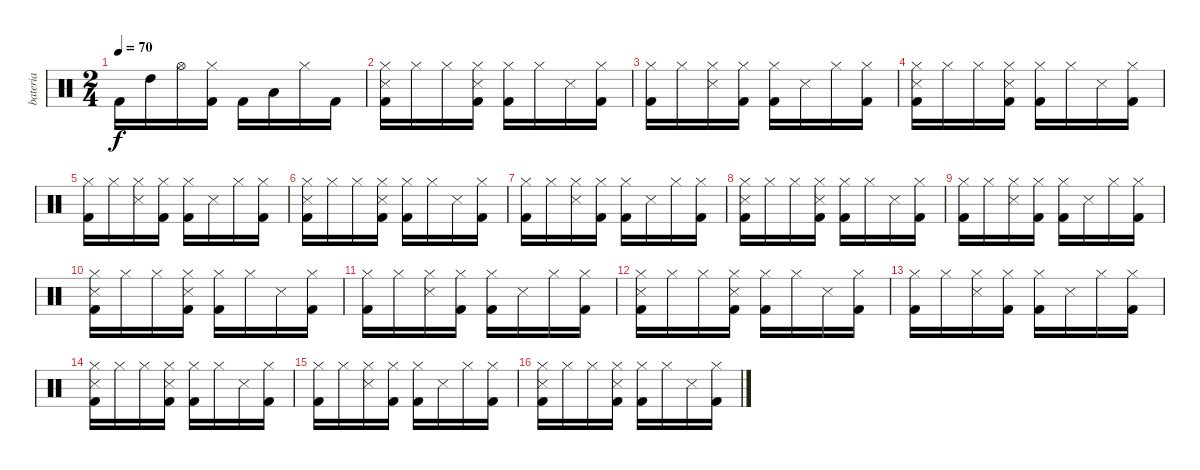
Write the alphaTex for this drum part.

\track ("bateria" "bateria") {instrument percussion}
\staff {score}
\articulation defaults
\ts (2 4)
\tempo 70
\clef neutral
\ks c "Kick (hit) 2".16{dy f} "High Tom (hit)".16 "Hi-Hat (open)".16
("Hi-Hat (closed)" "Kick (hit) 2").16 "Kick (hit) 2".16 "Low Tom (hit)".16 "Hi-Hat (closed)".16 "Kick (hit) 2".16 |
("Hi-Hat (closed)" "Snare (side stick) 3" "Kick (hit) 2").16{volume 13} "Hi-Hat (closed)".16 "Hi-Hat (closed)".16 ("Hi-Hat (closed)" "Snare (side stick) 3" "Kick (hit) 2").16 ("Hi-Hat (closed)" "Kick (hit) 2").16 "Hi-Hat (closed)".16 "Snare (side stick) 3".16 ("Hi-Hat (closed)" "Kick (hit) 2").16 |
("Hi-Hat (closed)" "Kick (hit) 2").16 "Hi-Hat (closed)".16 ("Hi-Hat (closed)" "Snare (side stick) 3").16 ("Hi-Hat (closed)" "Kick (hit) 2").16 ("Hi-Hat (closed)" "Kick (hit) 2").16 "Snare (side stick) 3".16 "Hi-Hat (closed)".16 ("Hi-Hat (closed)" "Kick (hit) 2").16 |
("Hi-Hat (closed)" "Snare (side stick) 3" "Kick (hit) 2").16 "Hi-Hat (closed)".16 "Hi-Hat (closed)".16 ("Hi-Hat (closed)" "Snare (side stick) 3" "Kick (hit) 2").16 ("Hi-Hat (closed)" "Kick (hit) 2").16 "Hi-Hat (closed)".16 "Snare (side stick) 3".16 ("Hi-Hat (closed)" "Kick (hit) 2").16 |
("Hi-Hat (closed)" "Kick (hit) 2").16 "Hi-Hat (closed)".16 ("Hi-Hat (closed)" "Snare (side stick) 3").16 ("Hi-Hat (closed)" "Kick (hit) 2").16 ("Hi-Hat (closed)" "Kick (hit) 2").16 "Snare (side stick) 3".16 "Hi-Hat (closed)".16 ("Hi-Hat (closed)" "Kick (hit) 2").16 |
("Hi-Hat (closed)" "Snare (side stick) 3" "Kick (hit) 2").16 "Hi-Hat (closed)".16 "Hi-Hat (closed)".16 ("Hi-Hat (closed)" "Snare (side stick) 3" "Kick (hit) 2").16 ("Hi-Hat (closed)" "Kick (hit) 2").16 "Hi-Hat (closed)".16 "Snare (side stick) 3".16 ("Hi-Hat (closed)" "Kick (hit) 2").16 |
("Hi-Hat (closed)" "Kick (hit) 2").16 "Hi-Hat (closed)".16 ("Hi-Hat (closed)" "Snare (side stick) 3").16 ("Hi-Hat (closed)" "Kick (hit) 2").16 ("Hi-Hat (closed)" "Kick (hit) 2").16 "Snare (side stick) 3".16 "Hi-Hat (closed)".16 ("Hi-Hat (closed)" "Kick (hit) 2").16 |
("Hi-Hat (closed)" "Snare (side stick) 3" "Kick (hit) 2").16 "Hi-Hat (closed)".16 "Hi-Hat (closed)".16 ("Hi-Hat (closed)" "Snare (side stick) 3" "Kick (hit) 2").16 ("Hi-Hat (closed)" "Kick (hit) 2").16 "Hi-Hat (closed)".16 "Snare (side stick) 3".16 ("Hi-Hat (closed)" "Kick (hit) 2").16 |
("Hi-Hat (closed)" "Kick (hit) 2").16 "Hi-Hat (closed)".16 ("Hi-Hat (closed)" "Snare (side stick) 3").16 ("Hi-Hat (closed)" "Kick (hit) 2").16 ("Hi-Hat (closed)" "Kick (hit) 2").16 "Snare (side stick) 3".16 "Hi-Hat (closed)".16 ("Hi-Hat (closed)" "Kick (hit) 2").16 |
("Hi-Hat (closed)" "Snare (side stick) 3" "Kick (hit) 2").16 "Hi-Hat (closed)".16 "Hi-Hat (closed)".16 ("Hi-Hat (closed)" "Snare (side stick) 3" "Kick (hit) 2").16 ("Hi-Hat (closed)" "Kick (hit) 2").16 "Hi-Hat (closed)".16 "Snare (side stick) 3".16 ("Hi-Hat (closed)" "Kick (hit) 2").16 |
("Hi-Hat (closed)" "Kick (hit) 2").16 "Hi-Hat (closed)".16 ("Hi-Hat (closed)" "Snare (side stick) 3").16 ("Hi-Hat (closed)" "Kick (hit) 2").16 ("Hi-Hat (closed)" "Kick (hit) 2").16 "Snare (side stick) 3".16 "Hi-Hat (closed)".16 ("Hi-Hat (closed)" "Kick (hit) 2").16 |
("Hi-Hat (closed)" "Snare (side stick) 3" "Kick (hit) 2").16 "Hi-Hat (closed)".16 "Hi-Hat (closed)".16 ("Hi-Hat (closed)" "Snare (side stick) 3" "Kick (hit) 2").16 ("Hi-Hat (closed)" "Kick (hit) 2").16 "Hi-Hat (closed)".16 "Snare (side stick) 3".16 ("Hi-Hat (closed)" "Kick (hit) 2").16 |
("Hi-Hat (closed)" "Kick (hit) 2").16 "Hi-Hat (closed)".16 ("Hi-Hat (closed)" "Snare (side stick) 3").16 ("Hi-Hat (closed)" "Kick (hit) 2").16 ("Hi-Hat (closed)" "Kick (hit) 2").16 "Snare (side stick) 3".16 "Hi-Hat (closed)".16 ("Hi-Hat (closed)" "Kick (hit) 2").16 |
("Hi-Hat (closed)" "Snare (side stick) 3" "Kick (hit) 2").16 "Hi-Hat (closed)".16 "Hi-Hat (closed)".16 ("Hi-Hat (closed)" "Snare (side stick) 3" "Kick (hit) 2").16 ("Hi-Hat (closed)" "Kick (hit) 2").16 "Hi-Hat (closed)".16 "Snare (side stick) 3".16 ("Hi-Hat (closed)" "Kick (hit) 2").16 |
("Hi-Hat (closed)" "Kick (hit) 2").16 "Hi-Hat (closed)".16 ("Hi-Hat (closed)" "Snare (side stick) 3").16 ("Hi-Hat (closed)" "Kick (hit) 2").16 ("Hi-Hat (closed)" "Kick (hit) 2").16 "Snare (side stick) 3".16 "Hi-Hat (closed)".16 ("Hi-Hat (closed)" "Kick (hit) 2").16 |
("Hi-Hat (closed)" "Snare (side stick) 3" "Kick (hit) 2").16 "Hi-Hat (closed)".16 "Hi-Hat (closed)".16 ("Hi-Hat (closed)" "Snare (side stick) 3" "Kick (hit) 2").16 ("Hi-Hat (closed)" "Kick (hit) 2").16 "Hi-Hat (closed)".16 "Snare (side stick) 3".16 ("Hi-Hat (closed)" "Kick (hit) 2").16
